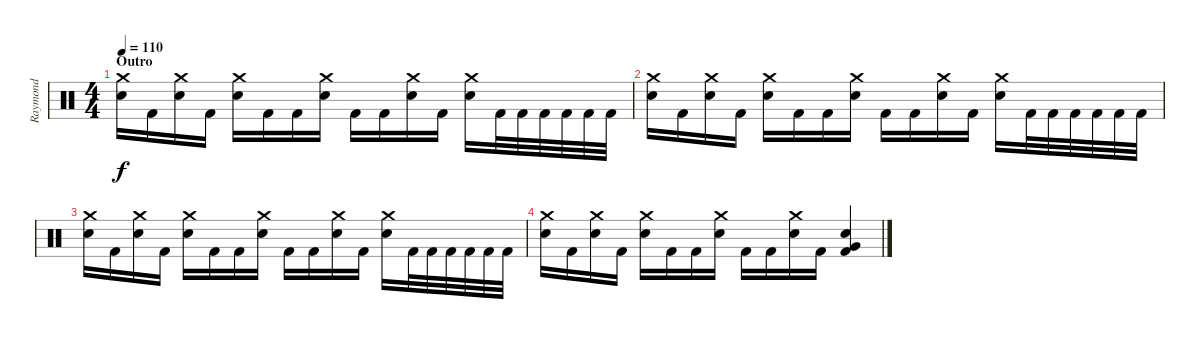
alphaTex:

\track ("Raymond" "Raymond") {instrument percussion}
\staff {score}
\articulation defaults
\ts (4 4)
\section ("" "Outro")
\tempo 110
\clef neutral
\ks c
("Crash medium (hit)" "Electric Snare (hit)").16{dy f} "Kick (hit) 2".16 ("Crash medium (hit)" "Electric Snare (hit)").16 "Kick (hit) 2".16 ("Crash medium (hit)" "Electric Snare (hit)").16 "Kick (hit) 2".16 "Kick (hit) 2".16 ("Crash medium (hit)" "Electric Snare (hit)").16 "Kick (hit) 2".16 "Kick (hit) 2".16 ("Crash medium (hit)" "Electric Snare (hit)").16 "Kick (hit) 2".16 ("Crash medium (hit)" "Electric Snare (hit)").16 "Kick (hit) 2".32 "Kick (hit) 2".32 "Kick (hit) 2".32 "Kick (hit) 2".32 "Kick (hit) 2".32 "Kick (hit) 2".32 |
("Crash medium (hit)" "Electric Snare (hit)").16 "Kick (hit) 2".16 ("Crash medium (hit)" "Electric Snare (hit)").16 "Kick (hit) 2".16 ("Crash medium (hit)" "Electric Snare (hit)").16 "Kick (hit) 2".16 "Kick (hit) 2".16 ("Crash medium (hit)" "Electric Snare (hit)").16 "Kick (hit) 2".16 "Kick (hit) 2".16 ("Crash medium (hit)" "Electric Snare (hit)").16 "Kick (hit) 2".16 ("Crash medium (hit)" "Electric Snare (hit)").16 "Kick (hit) 2".32 "Kick (hit) 2".32 "Kick (hit) 2".32 "Kick (hit) 2".32 "Kick (hit) 2".32 "Kick (hit) 2".32 |
("Crash medium (hit)" "Electric Snare (hit)").16 "Kick (hit) 2".16 ("Crash medium (hit)" "Electric Snare (hit)").16 "Kick (hit) 2".16 ("Crash medium (hit)" "Electric Snare (hit)").16 "Kick (hit) 2".16 "Kick (hit) 2".16 ("Crash medium (hit)" "Electric Snare (hit)").16 "Kick (hit) 2".16 "Kick (hit) 2".16 ("Crash medium (hit)" "Electric Snare (hit)").16 "Kick (hit) 2".16 ("Crash medium (hit)" "Electric Snare (hit)").16 "Kick (hit) 2".32 "Kick (hit) 2".32 "Kick (hit) 2".32 "Kick (hit) 2".32 "Kick (hit) 2".32 "Kick (hit) 2".32 |
("Crash medium (hit)" "Electric Snare (hit)").16 "Kick (hit) 2".16 ("Crash medium (hit)" "Electric Snare (hit)").16 "Kick (hit) 2".16 ("Crash medium (hit)" "Electric Snare (hit)").16 "Kick (hit) 2".16 "Kick (hit) 2".16 ("Crash medium (hit)" "Electric Snare (hit)").16 "Kick (hit) 2".16 "Kick (hit) 2".16 ("Crash medium (hit)" "Electric Snare (hit)").16 "Kick (hit) 2".16 ("Very Low Tom (hit)" "Electric Snare (hit)" "Kick (hit) 2").4
